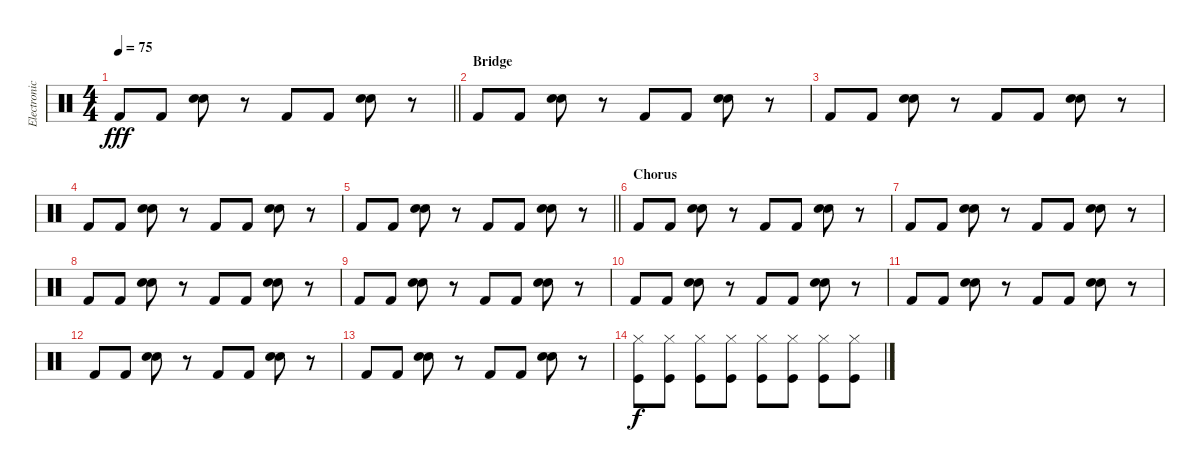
\track ("Electronic Kit" "Electronic") {instrument percussion}
\staff {score}
\articulation defaults
\ts (4 4)
\tempo 75
\clef neutral
\barLineRight lightlight
\ks c "Kick (hit) 2".8{dy fff} "Kick (hit) 2".8
("Hand Clap (hit)" "Electric Snare (hit)").8 r.8 "Kick (hit) 2".8 "Kick (hit) 2".8 ("Hand Clap (hit)" "Electric Snare (hit)").8 r.8 |
\section ("" "Bridge")
"Kick (hit) 2".8 "Kick (hit) 2".8 ("Hand Clap (hit)" "Electric Snare (hit)").8 r.8 "Kick (hit) 2".8 "Kick (hit) 2".8 ("Hand Clap (hit)" "Electric Snare (hit)").8 r.8 |
"Kick (hit) 2".8 "Kick (hit) 2".8 ("Hand Clap (hit)" "Electric Snare (hit)").8 r.8 "Kick (hit) 2".8 "Kick (hit) 2".8 ("Hand Clap (hit)" "Electric Snare (hit)").8 r.8 |
"Kick (hit) 2".8 "Kick (hit) 2".8 ("Hand Clap (hit)" "Electric Snare (hit)").8 r.8 "Kick (hit) 2".8 "Kick (hit) 2".8 ("Hand Clap (hit)" "Electric Snare (hit)").8 r.8 |
\barLineRight lightlight "Kick (hit) 2".8 "Kick (hit) 2".8
("Hand Clap (hit)" "Electric Snare (hit)").8 r.8 "Kick (hit) 2".8 "Kick (hit) 2".8 ("Hand Clap (hit)" "Electric Snare (hit)").8 r.8 |
\section ("" "Chorus")
"Kick (hit) 2".8 "Kick (hit) 2".8 ("Hand Clap (hit)" "Electric Snare (hit)").8 r.8 "Kick (hit) 2".8 "Kick (hit) 2".8 ("Hand Clap (hit)" "Electric Snare (hit)").8 r.8 |
"Kick (hit) 2".8 "Kick (hit) 2".8 ("Hand Clap (hit)" "Electric Snare (hit)").8 r.8 "Kick (hit) 2".8 "Kick (hit) 2".8 ("Hand Clap (hit)" "Electric Snare (hit)").8 r.8 |
"Kick (hit) 2".8 "Kick (hit) 2".8 ("Hand Clap (hit)" "Electric Snare (hit)").8 r.8 "Kick (hit) 2".8 "Kick (hit) 2".8 ("Hand Clap (hit)" "Electric Snare (hit)").8 r.8 |
"Kick (hit) 2".8 "Kick (hit) 2".8 ("Hand Clap (hit)" "Electric Snare (hit)").8 r.8 "Kick (hit) 2".8 "Kick (hit) 2".8 ("Hand Clap (hit)" "Electric Snare (hit)").8 r.8 |
"Kick (hit) 2".8 "Kick (hit) 2".8 ("Hand Clap (hit)" "Electric Snare (hit)").8 r.8 "Kick (hit) 2".8 "Kick (hit) 2".8 ("Hand Clap (hit)" "Electric Snare (hit)").8 r.8 |
"Kick (hit) 2".8 "Kick (hit) 2".8 ("Hand Clap (hit)" "Electric Snare (hit)").8 r.8 "Kick (hit) 2".8 "Kick (hit) 2".8 ("Hand Clap (hit)" "Electric Snare (hit)").8 r.8 |
"Kick (hit) 2".8 "Kick (hit) 2".8 ("Hand Clap (hit)" "Electric Snare (hit)").8 r.8 "Kick (hit) 2".8 "Kick (hit) 2".8 ("Hand Clap (hit)" "Electric Snare (hit)").8 r.8 |
"Kick (hit) 2".8 "Kick (hit) 2".8 ("Hand Clap (hit)" "Electric Snare (hit)").8 r.8 "Kick (hit) 2".8 "Kick (hit) 2".8 ("Hand Clap (hit)" "Electric Snare (hit)").8 r.8 |
("Hi-Hat (closed)" "Kick (hit)").8{dy f} ("Hi-Hat (closed)" "Kick (hit)").8 ("Hi-Hat (closed)" "Kick (hit)").8 ("Hi-Hat (closed)" "Kick (hit)").8 ("Hi-Hat (closed)" "Kick (hit)").8 ("Hi-Hat (closed)" "Kick (hit)").8 ("Hi-Hat (closed)" "Kick (hit)").8 ("Hi-Hat (closed)" "Kick (hit)").8
